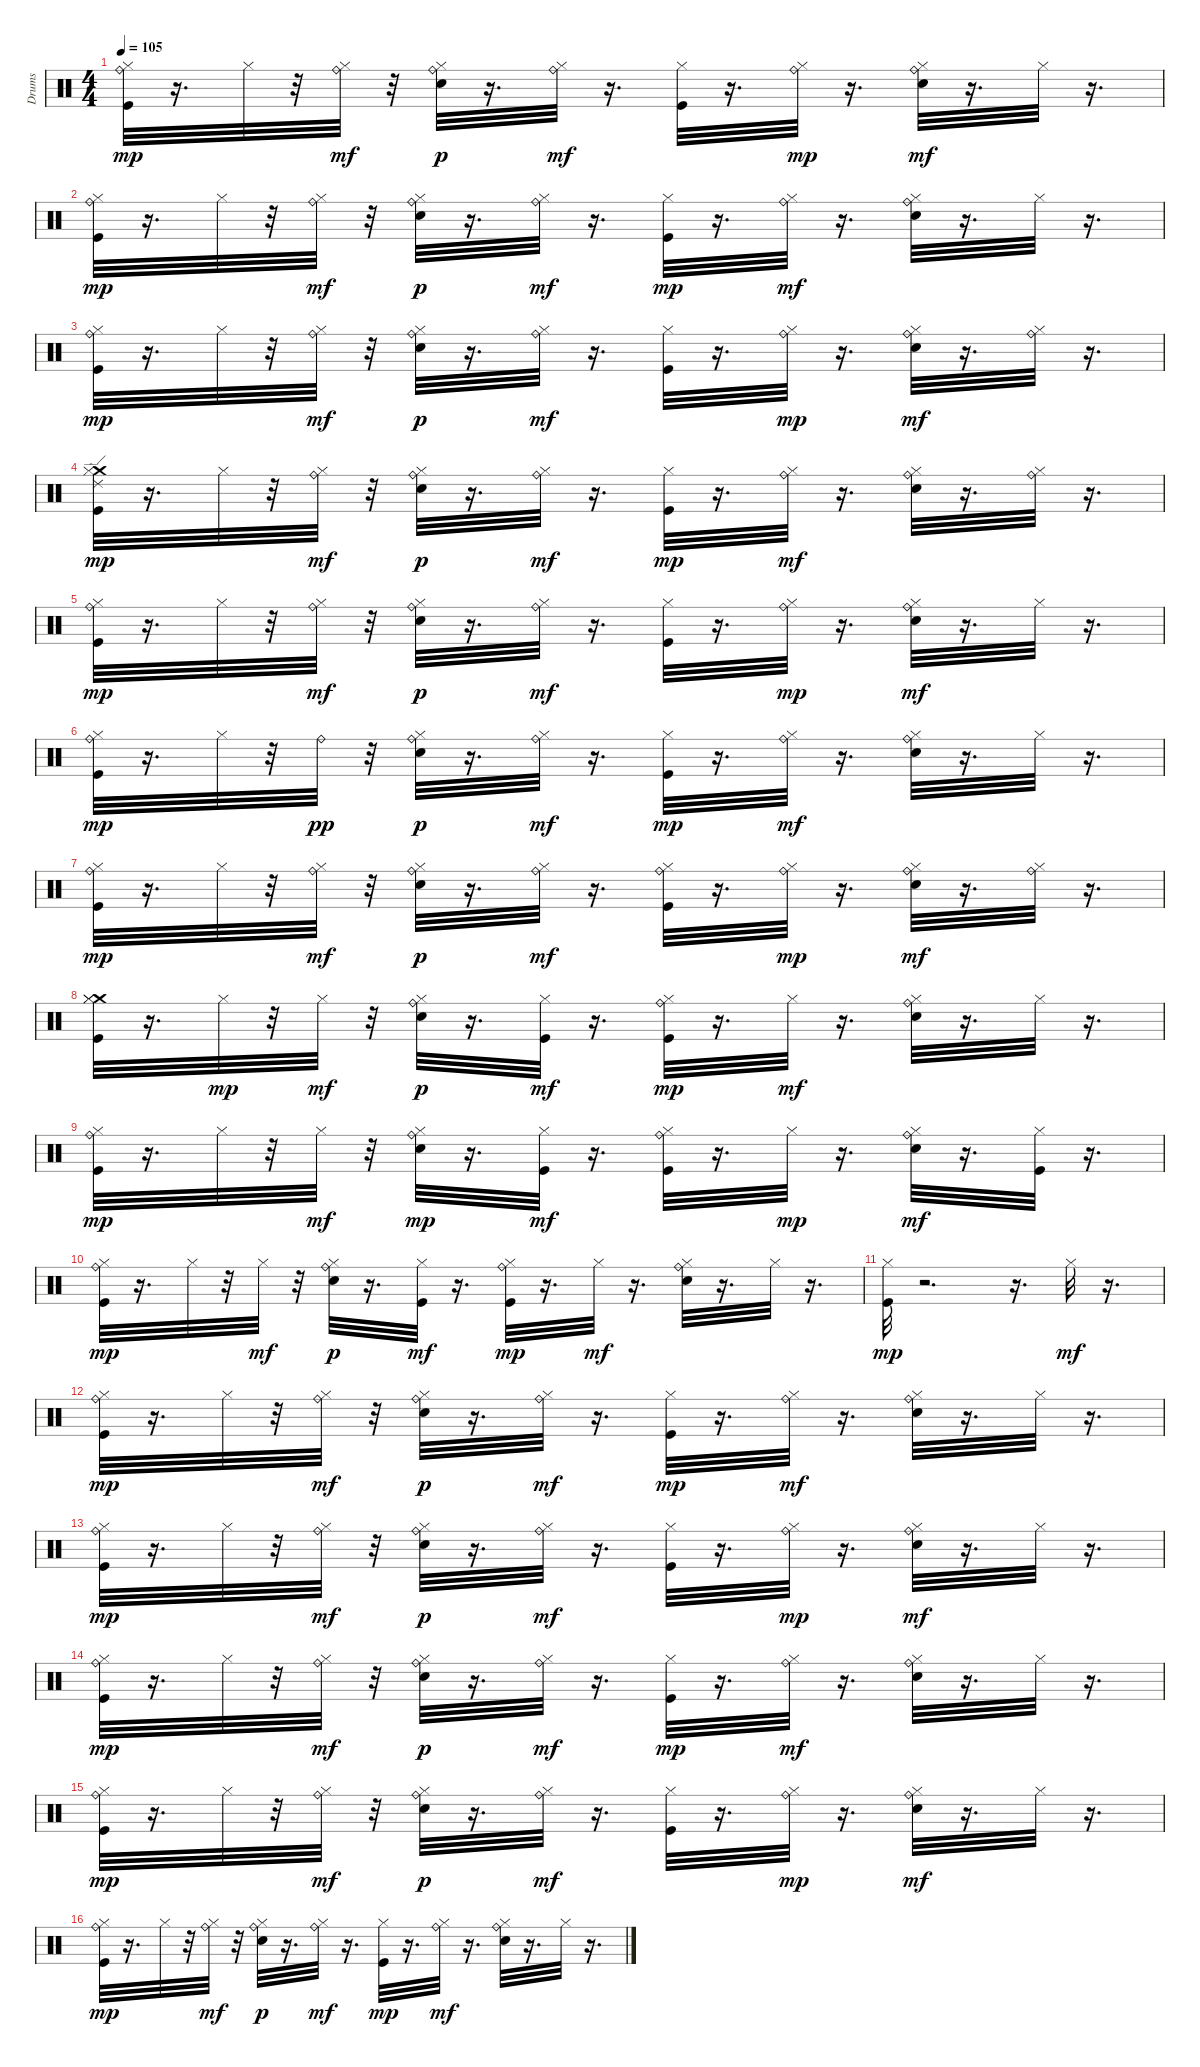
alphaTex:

\track ("Drums" "Drums") {instrument percussion}
\staff {score}
\articulation defaults
\ts (4 4)
\tempo 105
\clef neutral
\ks c
("Ride (bell)" "Kick (hit)" "Hi-Hat (closed)").32{dy mp} r.16{d} "Hi-Hat (closed)".32 r.32 ("Ride (bell)" "Hi-Hat (closed)").32{dy mf} r.32 ("Snare (hit) 2" "Ride (bell)" "Hi-Hat (closed)").32{dy p} r.16{d} ("Ride (bell)" "Hi-Hat (closed)").32{dy mf} r.16{d} ("Kick (hit)" "Hi-Hat (closed)").32 r.16{d} ("Ride (bell)" "Hi-Hat (closed)").32{dy mp} r.16{d} ("Snare (hit) 2" "Ride (bell)" "Hi-Hat (closed)").32{dy mf} r.16{d} "Hi-Hat (closed)".32 r.16{d} |
("Ride (bell)" "Kick (hit)" "Hi-Hat (closed)").32{dy mp} r.16{d} "Hi-Hat (closed)".32 r.32 ("Ride (bell)" "Hi-Hat (closed)").32{dy mf} r.32 ("Snare (hit) 2" "Ride (bell)" "Hi-Hat (closed)").32{dy p} r.16{d} ("Ride (bell)" "Hi-Hat (closed)").32{dy mf} r.16{d} ("Kick (hit)" "Hi-Hat (closed)").32{dy mp} r.16{d} ("Ride (bell)" "Hi-Hat (closed)").32{dy mf} r.16{d} ("Snare (hit) 2" "Ride (bell)" "Hi-Hat (closed)").32 r.16{d} "Hi-Hat (closed)".32 r.16{d} |
("Ride (bell)" "Kick (hit)" "Hi-Hat (closed)").32{dy mp} r.16{d} "Hi-Hat (closed)".32 r.32 ("Ride (bell)" "Hi-Hat (closed)").32{dy mf} r.32 ("Snare (hit) 2" "Ride (bell)" "Hi-Hat (closed)").32{dy p} r.16{d} ("Ride (bell)" "Hi-Hat (closed)").32{dy mf} r.16{d} ("Kick (hit)" "Hi-Hat (closed)").32 r.16{d} ("Ride (bell)" "Hi-Hat (closed)").32{dy mp} r.16{d} ("Snare (hit) 2" "Ride (bell)" "Hi-Hat (closed)").32{dy mf} r.16{d} ("Ride (bell)" "Hi-Hat (closed)").32 r.16{d} |
("Ride (edge) 2" "Crash medium (hit)" "Kick (hit)" "Hi-Hat (closed)").32{dy mp} r.16{d} "Hi-Hat (closed)".32 r.32 ("Ride (bell)" "Hi-Hat (closed)").32{dy mf} r.32 ("Snare (hit) 2" "Ride (bell)" "Hi-Hat (closed)").32{dy p} r.16{d} ("Ride (bell)" "Hi-Hat (closed)").32{dy mf} r.16{d} ("Kick (hit)" "Hi-Hat (closed)").32{dy mp} r.16{d} ("Ride (bell)" "Hi-Hat (closed)").32{dy mf} r.16{d} ("Snare (hit) 2" "Ride (bell)" "Hi-Hat (closed)").32 r.16{d} ("Ride (bell)" "Hi-Hat (closed)").32 r.16{d} |
("Ride (bell)" "Kick (hit)" "Hi-Hat (closed)").32{dy mp} r.16{d} "Hi-Hat (closed)".32 r.32 ("Ride (bell)" "Hi-Hat (closed)").32{dy mf} r.32 ("Snare (hit) 2" "Ride (bell)" "Hi-Hat (closed)").32{dy p} r.16{d} ("Ride (bell)" "Hi-Hat (closed)").32{dy mf} r.16{d} ("Kick (hit)" "Hi-Hat (closed)").32 r.16{d} ("Ride (bell)" "Hi-Hat (closed)").32{dy mp} r.16{d} ("Snare (hit) 2" "Ride (bell)" "Hi-Hat (closed)").32{dy mf} r.16{d} "Hi-Hat (closed)".32 r.16{d} |
("Ride (bell)" "Kick (hit)" "Hi-Hat (closed)").32{dy mp} r.16{d} "Hi-Hat (closed)".32 r.32 "Ride (bell)".32{dy pp} r.32 ("Snare (hit) 2" "Ride (bell)" "Hi-Hat (closed)").32{dy p} r.16{d} ("Ride (bell)" "Hi-Hat (closed)").32{dy mf} r.16{d} ("Kick (hit)" "Hi-Hat (closed)").32{dy mp} r.16{d} ("Ride (bell)" "Hi-Hat (closed)").32{dy mf} r.16{d} ("Snare (hit) 2" "Ride (bell)" "Hi-Hat (closed)").32 r.16{d} "Hi-Hat (closed)".32 r.16{d} |
("Ride (bell)" "Kick (hit)" "Hi-Hat (closed)").32{dy mp} r.16{d} "Hi-Hat (closed)".32 r.32 ("Ride (bell)" "Hi-Hat (closed)").32{dy mf} r.32 ("Snare (hit) 2" "Ride (bell)" "Hi-Hat (closed)").32{dy p} r.16{d} ("Ride (bell)" "Hi-Hat (closed)").32{dy mf} r.16{d} ("Ride (bell)" "Kick (hit)" "Hi-Hat (closed)").32 r.16{d} ("Ride (bell)" "Hi-Hat (closed)").32{dy mp} r.16{d} ("Snare (hit) 2" "Ride (bell)" "Hi-Hat (closed)").32{dy mf} r.16{d} ("Ride (bell)" "Hi-Hat (closed)").32 r.16{d} |
("Crash medium (hit)" "Kick (hit)" "Hi-Hat (closed)" "Hi-Hat (closed)").32 r.16{d} "Hi-Hat (closed)".32{dy mp} r.32 "Hi-Hat (closed)".32{dy mf} r.32 ("Snare (hit) 2" "Ride (bell)" "Hi-Hat (closed)").32{dy p} r.16{d} ("Kick (hit)" "Hi-Hat (closed)").32{dy mf} r.16{d} ("Ride (bell)" "Kick (hit)" "Hi-Hat (closed)").32{dy mp} r.16{d} "Hi-Hat (closed)".32{dy mf} r.16{d} ("Snare (hit) 2" "Ride (bell)" "Hi-Hat (closed)").32 r.16{d} "Hi-Hat (closed)".32 r.16{d} |
("Ride (bell)" "Kick (hit)" "Hi-Hat (closed)").32{dy mp} r.16{d} "Hi-Hat (closed)".32 r.32 "Hi-Hat (closed)".32{dy mf} r.32 ("Snare (hit) 2" "Ride (bell)" "Hi-Hat (closed)").32{dy mp} r.16{d} ("Kick (hit)" "Hi-Hat (closed)").32{dy mf} r.16{d} ("Ride (bell)" "Kick (hit)" "Hi-Hat (closed)").32 r.16{d} "Hi-Hat (closed)".32{dy mp} r.16{d} ("Snare (hit) 2" "Ride (bell)" "Hi-Hat (closed)").32{dy mf} r.16{d} ("Kick (hit)" "Hi-Hat (closed)").32 r.16{d} |
("Ride (bell)" "Kick (hit)" "Hi-Hat (closed)").32{dy mp} r.16{d} "Hi-Hat (closed)".32 r.32 "Hi-Hat (closed)".32{dy mf} r.32 ("Snare (hit) 2" "Ride (bell)" "Hi-Hat (closed)").32{dy p} r.16{d} ("Kick (hit)" "Hi-Hat (closed)").32{dy mf} r.16{d} ("Ride (bell)" "Kick (hit)" "Hi-Hat (closed)").32{dy mp} r.16{d} "Hi-Hat (closed)".32{dy mf} r.16{d} ("Snare (hit) 2" "Ride (bell)" "Hi-Hat (closed)").32 r.16{d} "Hi-Hat (closed)".32 r.16{d} |
("Kick (hit)" "Hi-Hat (closed)").32{dy mp} r.2{d} r.16{d} "Hi-Hat (closed)".32{dy mf} r.16{d} |
("Ride (bell)" "Kick (hit)" "Hi-Hat (closed)").32{dy mp} r.16{d} "Hi-Hat (closed)".32 r.32 ("Ride (bell)" "Hi-Hat (closed)").32{dy mf} r.32 ("Snare (hit) 2" "Ride (bell)" "Hi-Hat (closed)").32{dy p} r.16{d} ("Ride (bell)" "Hi-Hat (closed)").32{dy mf} r.16{d} ("Kick (hit)" "Hi-Hat (closed)").32{dy mp} r.16{d} ("Ride (bell)" "Hi-Hat (closed)").32{dy mf} r.16{d} ("Snare (hit) 2" "Ride (bell)" "Hi-Hat (closed)").32 r.16{d} "Hi-Hat (closed)".32 r.16{d} |
("Ride (bell)" "Kick (hit)" "Hi-Hat (closed)").32{dy mp} r.16{d} "Hi-Hat (closed)".32 r.32 ("Ride (bell)" "Hi-Hat (closed)").32{dy mf} r.32 ("Snare (hit) 2" "Ride (bell)" "Hi-Hat (closed)").32{dy p} r.16{d} ("Ride (bell)" "Hi-Hat (closed)").32{dy mf} r.16{d} ("Kick (hit)" "Hi-Hat (closed)").32 r.16{d} ("Ride (bell)" "Hi-Hat (closed)").32{dy mp} r.16{d} ("Snare (hit) 2" "Ride (bell)" "Hi-Hat (closed)").32{dy mf} r.16{d} "Hi-Hat (closed)".32 r.16{d} |
("Ride (bell)" "Kick (hit)" "Hi-Hat (closed)").32{dy mp} r.16{d} "Hi-Hat (closed)".32 r.32 ("Ride (bell)" "Hi-Hat (closed)").32{dy mf} r.32 ("Snare (hit) 2" "Ride (bell)" "Hi-Hat (closed)").32{dy p} r.16{d} ("Ride (bell)" "Hi-Hat (closed)").32{dy mf} r.16{d} ("Kick (hit)" "Hi-Hat (closed)").32{dy mp} r.16{d} ("Ride (bell)" "Hi-Hat (closed)").32{dy mf} r.16{d} ("Snare (hit) 2" "Ride (bell)" "Hi-Hat (closed)").32 r.16{d} "Hi-Hat (closed)".32 r.16{d} |
("Ride (bell)" "Kick (hit)" "Hi-Hat (closed)").32{dy mp} r.16{d} "Hi-Hat (closed)".32 r.32 ("Ride (bell)" "Hi-Hat (closed)").32{dy mf} r.32 ("Snare (hit) 2" "Ride (bell)" "Hi-Hat (closed)").32{dy p} r.16{d} ("Ride (bell)" "Hi-Hat (closed)").32{dy mf} r.16{d} ("Kick (hit)" "Hi-Hat (closed)").32 r.16{d} ("Ride (bell)" "Hi-Hat (closed)").32{dy mp} r.16{d} ("Snare (hit) 2" "Ride (bell)" "Hi-Hat (closed)").32{dy mf} r.16{d} "Hi-Hat (closed)".32 r.16{d} |
("Ride (bell)" "Kick (hit)" "Hi-Hat (closed)").32{dy mp} r.16{d} "Hi-Hat (closed)".32 r.32 ("Ride (bell)" "Hi-Hat (closed)").32{dy mf} r.32 ("Snare (hit) 2" "Ride (bell)" "Hi-Hat (closed)").32{dy p} r.16{d} ("Ride (bell)" "Hi-Hat (closed)").32{dy mf} r.16{d} ("Kick (hit)" "Hi-Hat (closed)").32{dy mp} r.16{d} ("Ride (bell)" "Hi-Hat (closed)").32{dy mf} r.16{d} ("Snare (hit) 2" "Ride (bell)" "Hi-Hat (closed)").32 r.16{d} "Hi-Hat (closed)".32 r.16{d}
